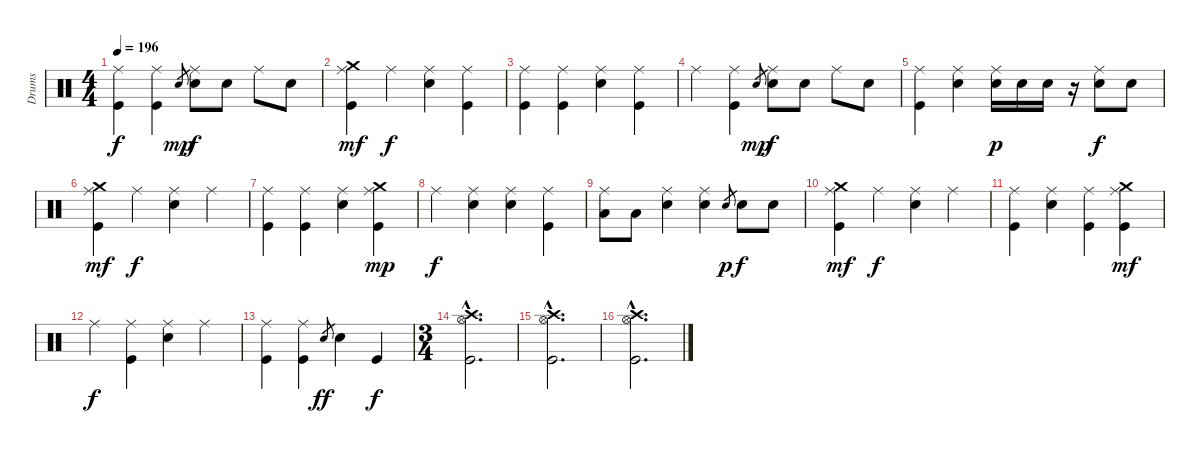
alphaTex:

\track ("Drums" "Drums") {instrument percussion}
\staff {score}
\articulation defaults
\ts (4 4)
\tempo 196
\clef neutral
\ks c
("Ride (middle)" "Kick (hit)").4{dy f} ("Ride (middle)" "Kick (hit)").4 "Electric Snare (hit)".8{gr dy mp} ("Ride (middle)" "Electric Snare (hit)").8{dy f} "Electric Snare (hit)".8 "Ride (middle)".8 "Electric Snare (hit)".8 |
("Crash medium (hit)" "Ride (middle)" "Kick (hit)").4{dy mf} "Ride (middle)".4{dy f} ("Ride (middle)" "Electric Snare (hit)").4 ("Ride (middle)" "Kick (hit)").4 |
("Ride (middle)" "Kick (hit)").4 ("Ride (middle)" "Kick (hit)").4 ("Ride (middle)" "Electric Snare (hit)").4 ("Ride (middle)" "Kick (hit)").4 |
"Ride (middle)".4 ("Ride (middle)" "Kick (hit)").4 "Electric Snare (hit)".8{gr dy mp} ("Ride (middle)" "Electric Snare (hit)").8{dy f} "Electric Snare (hit)".8 "Ride (middle)".8 "Electric Snare (hit)".8 |
("Ride (middle)" "Kick (hit)").4 ("Ride (middle)" "Electric Snare (hit)").4 ("Ride (middle)" "Electric Snare (hit)").16{dy p} "Electric Snare (hit)".16 "Electric Snare (hit)".16 r.16 ("Ride (middle)" "Electric Snare (hit)").8{dy f} "Electric Snare (hit)".8 |
("Crash medium (hit)" "Ride (middle)" "Kick (hit)").4{dy mf} "Ride (middle)".4{dy f} ("Ride (middle)" "Electric Snare (hit)").4 "Ride (middle)".4 |
("Ride (middle)" "Kick (hit)").4 ("Ride (middle)" "Kick (hit)").4 ("Ride (middle)" "Electric Snare (hit)").4 ("Crash medium (hit)" "Ride (middle)" "Kick (hit)").4{dy mp} |
"Ride (middle)".4{dy f} ("Ride (middle)" "Electric Snare (hit)").4 ("Ride (middle)" "Electric Snare (hit)").4 ("Ride (middle)" "Kick (hit)").4 |
("Ride (middle)" "Low Tom (hit)").8 "Low Tom (hit)".8 ("Ride (middle)" "Electric Snare (hit)").4 ("Ride (middle)" "Electric Snare (hit)").4 "Electric Snare (hit)".8{gr dy p} "Electric Snare (hit)".8{dy f} "Electric Snare (hit)".8 |
("Crash medium (hit)" "Ride (middle)" "Kick (hit)").4{dy mf} "Ride (middle)".4{dy f} ("Ride (middle)" "Electric Snare (hit)").4 "Ride (middle)".4 |
("Ride (middle)" "Kick (hit)").4 ("Ride (middle)" "Electric Snare (hit)").4 ("Ride (middle)" "Kick (hit)").4 ("Crash medium (hit)" "Ride (middle)" "Kick (hit)").4{dy mf} |
"Ride (middle)".4{dy f} ("Ride (middle)" "Kick (hit)").4 ("Ride (middle)" "Electric Snare (hit)").4 "Ride (middle)".4 |
("Ride (middle)" "Kick (hit)").4 ("Ride (middle)" "Kick (hit)").4 "Snare (hit) 2"{sl}.8{gr dy ff} "Electric Snare (hit)".4 "Kick (hit)".4{dy f} |
\ts (3 4)
("Crash high (hit)"{hac} "Hi-Hat (open)"{hac} "Kick (hit)"{hac}).2{d} |
("Crash high (hit)"{hac} "Hi-Hat (open)"{hac} "Kick (hit)"{hac}).2{d} |
("Crash high (hit)"{hac} "Hi-Hat (open)"{hac} "Kick (hit)"{hac}).2{d}
